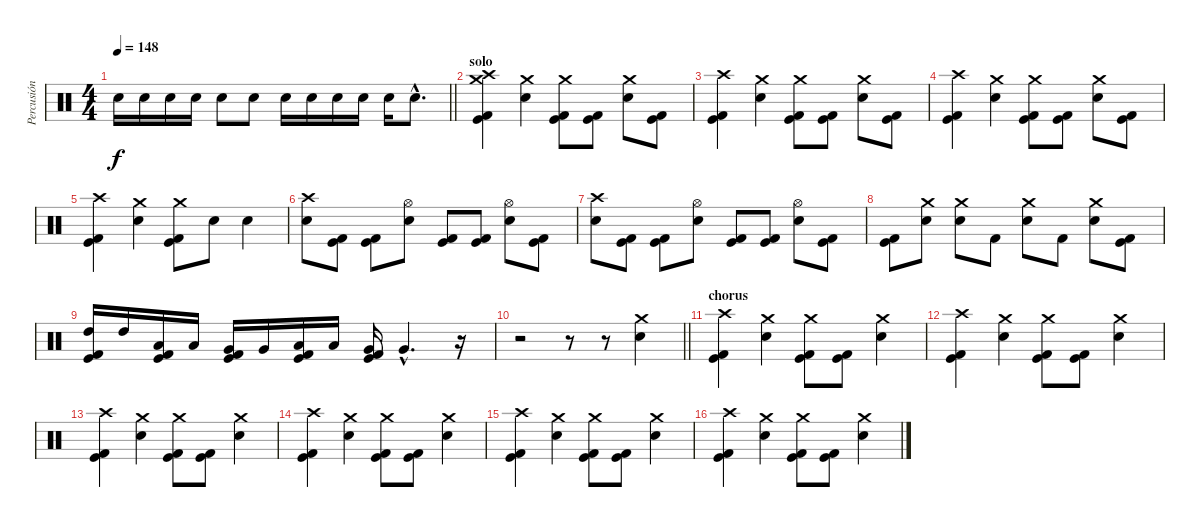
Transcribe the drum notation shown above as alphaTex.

\track ("Percusión" "Percusión") {instrument percussion}
\staff {score}
\articulation defaults
\ts (4 4)
\tempo 148
\clef neutral
\barLineRight lightlight
\ks c "Electric Snare (hit)".16{dy f} "Electric Snare (hit)".16 "Electric Snare (hit)".16 "Electric Snare (hit)".16 "Electric Snare (hit)".8 "Electric Snare (hit)".8 "Electric Snare (hit)".16 "Electric Snare (hit)".16 "Electric Snare (hit)".16 "Electric Snare (hit)".16 "Electric Snare (hit)".16 "Electric Snare (hit)"{hac}.8{d}
|
\section ("" "solo")
("Crash high (hit)" "Crash medium (hit)" "Kick (hit)" "Kick (hit) 2").4 ("Crash medium (hit)" "Electric Snare (hit)").4 ("Crash medium (hit)" "Kick (hit)" "Kick (hit) 2").8 ("Kick (hit)" "Kick (hit) 2").8 ("Crash medium (hit)" "Electric Snare (hit)").8 ("Kick (hit)" "Kick (hit) 2").8 |
("Crash high (hit)" "Kick (hit)" "Kick (hit) 2").4 ("Crash medium (hit)" "Electric Snare (hit)").4 ("Crash medium (hit)" "Kick (hit)" "Kick (hit) 2").8 ("Kick (hit)" "Kick (hit) 2").8 ("Crash medium (hit)" "Electric Snare (hit)").8 ("Kick (hit)" "Kick (hit) 2").8 |
("Crash high (hit)" "Kick (hit)" "Kick (hit) 2").4 ("Crash medium (hit)" "Electric Snare (hit)").4 ("Crash medium (hit)" "Kick (hit)" "Kick (hit) 2").8 ("Kick (hit)" "Kick (hit) 2").8 ("Crash medium (hit)" "Electric Snare (hit)").8 ("Kick (hit)" "Kick (hit) 2").8 |
("Crash high (hit)" "Kick (hit)" "Kick (hit) 2").4 ("Crash medium (hit)" "Electric Snare (hit)").4 ("Crash medium (hit)" "Kick (hit)" "Kick (hit) 2").8 "Electric Snare (hit)".8 "Electric Snare (hit)".4 |
("Crash high (hit)" "Electric Snare (hit)").8 ("Kick (hit)" "Kick (hit) 2").8 ("Kick (hit)" "Kick (hit) 2").8 ("Hi-Hat (open)" "Electric Snare (hit)").8 ("Kick (hit)" "Kick (hit) 2").8 ("Kick (hit)" "Kick (hit) 2").8 ("Hi-Hat (open)" "Electric Snare (hit)").8 ("Kick (hit)" "Kick (hit) 2").8 |
("Crash high (hit)" "Electric Snare (hit)").8 ("Kick (hit)" "Kick (hit) 2").8 ("Kick (hit)" "Kick (hit) 2").8 ("Hi-Hat (open)" "Electric Snare (hit)").8 ("Kick (hit)" "Kick (hit) 2").8 ("Kick (hit)" "Kick (hit) 2").8 ("Hi-Hat (open)" "Electric Snare (hit)").8 ("Kick (hit)" "Kick (hit) 2").8 |
("Kick (hit)" "Kick (hit) 2").8 ("Crash medium (hit)" "Electric Snare (hit)").8 ("Crash medium (hit)" "Electric Snare (hit)").8 "Kick (hit) 2".8 ("Crash medium (hit)" "Electric Snare (hit)").8 "Kick (hit) 2".8 ("Crash medium (hit)" "Electric Snare (hit)").8 ("Kick (hit)" "Kick (hit) 2").8 |
("High Tom (hit)" "Kick (hit)" "Kick (hit) 2").16 "High Tom (hit)".16 ("Low Tom (hit)" "Kick (hit)" "Kick (hit) 2").16 "Low Tom (hit)".16 ("Kick (hit)" "Very Low Tom (hit)" "Kick (hit) 2").16 "Very Low Tom (hit)".16 ("Kick (hit)" "Low Tom (hit)" "Kick (hit) 2").16 "Low Tom (hit)".16 ("Kick (hit)" "Very Low Tom (hit)" "Kick (hit) 2").16 "Very Low Tom (hit)"{hac}.4{d} r.16 |
\barLineRight lightlight
r.2 r.8 r.8 ("Crash medium (hit)" "Electric Snare (hit)").4 |
\section ("" "chorus")
("Crash high (hit)" "Kick (hit)" "Kick (hit) 2").4 ("Crash medium (hit)" "Electric Snare (hit)").4 ("Crash medium (hit)" "Kick (hit)" "Kick (hit) 2").8 ("Kick (hit)" "Kick (hit) 2").8 ("Crash medium (hit)" "Electric Snare (hit)").4 |
("Crash high (hit)" "Kick (hit)" "Kick (hit) 2").4 ("Crash medium (hit)" "Electric Snare (hit)").4 ("Crash medium (hit)" "Kick (hit)" "Kick (hit) 2").8 ("Kick (hit)" "Kick (hit) 2").8 ("Crash medium (hit)" "Electric Snare (hit)").4 |
("Crash high (hit)" "Kick (hit)" "Kick (hit) 2").4 ("Crash medium (hit)" "Electric Snare (hit)").4 ("Crash medium (hit)" "Kick (hit)" "Kick (hit) 2").8 ("Kick (hit)" "Kick (hit) 2").8 ("Crash medium (hit)" "Electric Snare (hit)").4 |
("Crash high (hit)" "Kick (hit)" "Kick (hit) 2").4 ("Crash medium (hit)" "Electric Snare (hit)").4 ("Crash medium (hit)" "Kick (hit)" "Kick (hit) 2").8 ("Kick (hit)" "Kick (hit) 2").8 ("Crash medium (hit)" "Electric Snare (hit)").4 |
("Crash high (hit)" "Kick (hit)" "Kick (hit) 2").4 ("Crash medium (hit)" "Electric Snare (hit)").4 ("Crash medium (hit)" "Kick (hit)" "Kick (hit) 2").8 ("Kick (hit)" "Kick (hit) 2").8 ("Crash medium (hit)" "Electric Snare (hit)").4 |
("Crash high (hit)" "Kick (hit)" "Kick (hit) 2").4 ("Crash medium (hit)" "Electric Snare (hit)").4 ("Crash medium (hit)" "Kick (hit)" "Kick (hit) 2").8 ("Kick (hit)" "Kick (hit) 2").8 ("Crash medium (hit)" "Electric Snare (hit)").4
